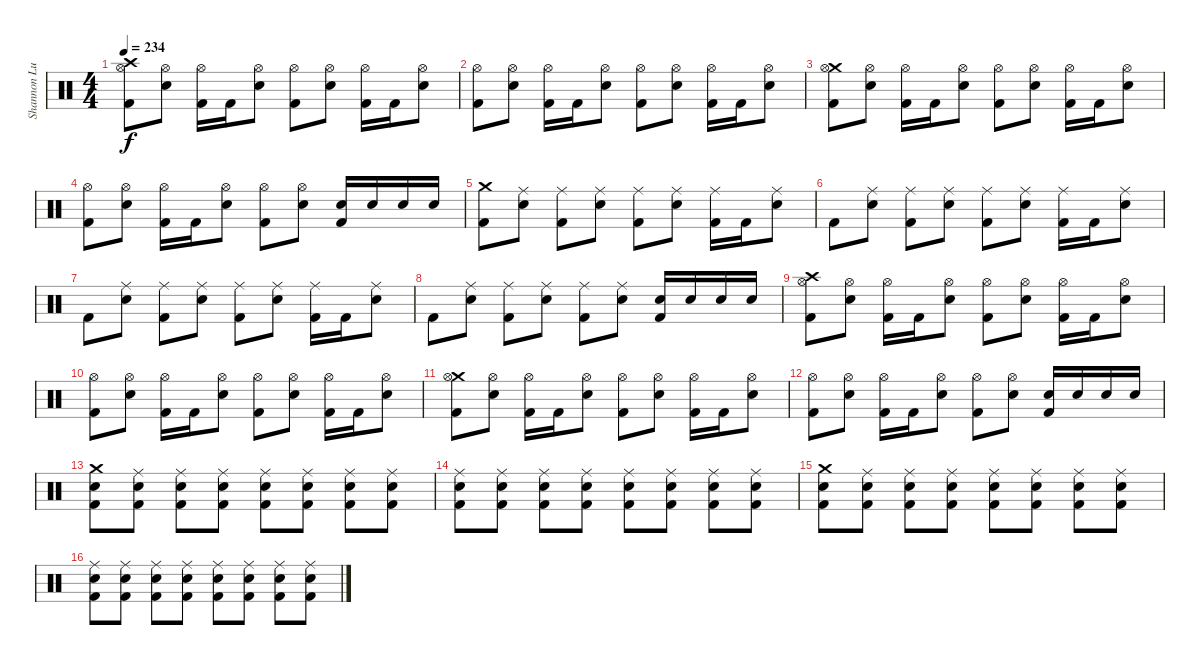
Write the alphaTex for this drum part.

\track ("Shannon Lucas (Drums)" "Shannon Lu") {instrument percussion}
\staff {score}
\articulation defaults
\ts (4 4)
\tempo 234
\clef neutral
\ks c
("Crash high (hit)" "Hi-Hat (open)" "Kick (hit) 2").8{dy f} ("Hi-Hat (open)" "Electric Snare (hit)").8 ("Hi-Hat (open)" "Kick (hit) 2").16 "Kick (hit) 2".16 ("Hi-Hat (open)" "Electric Snare (hit)").8 ("Hi-Hat (open)" "Kick (hit) 2").8 ("Hi-Hat (open)" "Electric Snare (hit)").8 ("Hi-Hat (open)" "Kick (hit) 2").16 "Kick (hit) 2".16 ("Hi-Hat (open)" "Electric Snare (hit)").8 |
("Hi-Hat (open)" "Kick (hit) 2").8 ("Hi-Hat (open)" "Electric Snare (hit)").8 ("Hi-Hat (open)" "Kick (hit) 2").16 "Kick (hit) 2".16 ("Hi-Hat (open)" "Electric Snare (hit)").8 ("Hi-Hat (open)" "Kick (hit) 2").8 ("Hi-Hat (open)" "Electric Snare (hit)").8 ("Hi-Hat (open)" "Kick (hit) 2").16 "Kick (hit) 2".16 ("Hi-Hat (open)" "Electric Snare (hit)").8 |
("Crash medium (hit)" "Hi-Hat (open)" "Kick (hit) 2").8 ("Hi-Hat (open)" "Electric Snare (hit)").8 ("Hi-Hat (open)" "Kick (hit) 2").16 "Kick (hit) 2".16 ("Hi-Hat (open)" "Electric Snare (hit)").8 ("Hi-Hat (open)" "Kick (hit) 2").8 ("Hi-Hat (open)" "Electric Snare (hit)").8 ("Hi-Hat (open)" "Kick (hit) 2").16 "Kick (hit) 2".16 ("Hi-Hat (open)" "Electric Snare (hit)").8 |
("Hi-Hat (open)" "Kick (hit) 2").8 ("Hi-Hat (open)" "Electric Snare (hit)").8 ("Hi-Hat (open)" "Kick (hit) 2").16 "Kick (hit) 2".16 ("Hi-Hat (open)" "Electric Snare (hit)").8 ("Hi-Hat (open)" "Kick (hit) 2").8 ("Hi-Hat (open)" "Electric Snare (hit)").8 ("Electric Snare (hit)" "Kick (hit) 2").16 "Electric Snare (hit)".16 "Electric Snare (hit)".16 "Electric Snare (hit)".16 |
("Crash medium (hit)" "Kick (hit) 2").8 ("Ride (middle)" "Electric Snare (hit)").8 ("Ride (middle)" "Kick (hit) 2").8 ("Ride (middle)" "Electric Snare (hit)").8 ("Ride (middle)" "Kick (hit) 2").8 ("Ride (middle)" "Electric Snare (hit)").8 ("Ride (middle)" "Kick (hit) 2").16 "Kick (hit) 2".16 ("Ride (middle)" "Electric Snare (hit)").8 |
"Kick (hit) 2".8 ("Ride (middle)" "Electric Snare (hit)").8 ("Ride (middle)" "Kick (hit) 2").8 ("Ride (middle)" "Electric Snare (hit)").8 ("Ride (middle)" "Kick (hit) 2").8 ("Ride (middle)" "Electric Snare (hit)").8 ("Ride (middle)" "Kick (hit) 2").16 "Kick (hit) 2".16 ("Ride (middle)" "Electric Snare (hit)").8 |
"Kick (hit) 2".8 ("Ride (middle)" "Electric Snare (hit)").8 ("Ride (middle)" "Kick (hit) 2").8 ("Ride (middle)" "Electric Snare (hit)").8 ("Ride (middle)" "Kick (hit) 2").8 ("Ride (middle)" "Electric Snare (hit)").8 ("Ride (middle)" "Kick (hit) 2").16 "Kick (hit) 2".16 ("Ride (middle)" "Electric Snare (hit)").8 |
"Kick (hit) 2".8 ("Ride (middle)" "Electric Snare (hit)").8 ("Ride (middle)" "Kick (hit) 2").8 ("Ride (middle)" "Electric Snare (hit)").8 ("Ride (middle)" "Kick (hit) 2").8 ("Ride (middle)" "Electric Snare (hit)").8 ("Electric Snare (hit)" "Kick (hit) 2").16 "Electric Snare (hit)".16 "Electric Snare (hit)".16 "Electric Snare (hit)".16 |
("Crash high (hit)" "Hi-Hat (open)" "Kick (hit) 2").8 ("Hi-Hat (open)" "Electric Snare (hit)").8 ("Hi-Hat (open)" "Kick (hit) 2").16 "Kick (hit) 2".16 ("Hi-Hat (open)" "Electric Snare (hit)").8 ("Hi-Hat (open)" "Kick (hit) 2").8 ("Hi-Hat (open)" "Electric Snare (hit)").8 ("Hi-Hat (open)" "Kick (hit) 2").16 "Kick (hit) 2".16 ("Hi-Hat (open)" "Electric Snare (hit)").8 |
("Hi-Hat (open)" "Kick (hit) 2").8 ("Hi-Hat (open)" "Electric Snare (hit)").8 ("Hi-Hat (open)" "Kick (hit) 2").16 "Kick (hit) 2".16 ("Hi-Hat (open)" "Electric Snare (hit)").8 ("Hi-Hat (open)" "Kick (hit) 2").8 ("Hi-Hat (open)" "Electric Snare (hit)").8 ("Hi-Hat (open)" "Kick (hit) 2").16 "Kick (hit) 2".16 ("Hi-Hat (open)" "Electric Snare (hit)").8 |
("Crash medium (hit)" "Hi-Hat (open)" "Kick (hit) 2").8 ("Hi-Hat (open)" "Electric Snare (hit)").8 ("Hi-Hat (open)" "Kick (hit) 2").16 "Kick (hit) 2".16 ("Hi-Hat (open)" "Electric Snare (hit)").8 ("Hi-Hat (open)" "Kick (hit) 2").8 ("Hi-Hat (open)" "Electric Snare (hit)").8 ("Hi-Hat (open)" "Kick (hit) 2").16 "Kick (hit) 2".16 ("Hi-Hat (open)" "Electric Snare (hit)").8 |
("Hi-Hat (open)" "Kick (hit) 2").8 ("Hi-Hat (open)" "Electric Snare (hit)").8 ("Hi-Hat (open)" "Kick (hit) 2").16 "Kick (hit) 2".16 ("Hi-Hat (open)" "Electric Snare (hit)").8 ("Hi-Hat (open)" "Kick (hit) 2").8 ("Hi-Hat (open)" "Electric Snare (hit)").8 ("Electric Snare (hit)" "Kick (hit) 2").16 "Electric Snare (hit)".16 "Electric Snare (hit)".16 "Electric Snare (hit)".16 |
("Crash medium (hit)" "Electric Snare (hit)" "Kick (hit) 2").8 ("Ride (middle)" "Electric Snare (hit)" "Kick (hit) 2").8 ("Ride (middle)" "Electric Snare (hit)" "Kick (hit) 2").8 ("Ride (middle)" "Electric Snare (hit)" "Kick (hit) 2").8 ("Ride (middle)" "Electric Snare (hit)" "Kick (hit) 2").8 ("Ride (middle)" "Electric Snare (hit)" "Kick (hit) 2").8 ("Ride (middle)" "Electric Snare (hit)" "Kick (hit) 2").8 ("Ride (middle)" "Electric Snare (hit)" "Kick (hit) 2").8 |
("Ride (middle)" "Electric Snare (hit)" "Kick (hit) 2").8 ("Ride (middle)" "Electric Snare (hit)" "Kick (hit) 2").8 ("Ride (middle)" "Electric Snare (hit)" "Kick (hit) 2").8 ("Ride (middle)" "Electric Snare (hit)" "Kick (hit) 2").8 ("Ride (middle)" "Electric Snare (hit)" "Kick (hit) 2").8 ("Ride (middle)" "Electric Snare (hit)" "Kick (hit) 2").8 ("Ride (middle)" "Electric Snare (hit)" "Kick (hit) 2").8 ("Ride (middle)" "Electric Snare (hit)" "Kick (hit) 2").8 |
("Crash medium (hit)" "Electric Snare (hit)" "Kick (hit) 2").8 ("Ride (middle)" "Electric Snare (hit)" "Kick (hit) 2").8 ("Ride (middle)" "Electric Snare (hit)" "Kick (hit) 2").8 ("Ride (middle)" "Electric Snare (hit)" "Kick (hit) 2").8 ("Ride (middle)" "Electric Snare (hit)" "Kick (hit) 2").8 ("Ride (middle)" "Electric Snare (hit)" "Kick (hit) 2").8 ("Ride (middle)" "Electric Snare (hit)" "Kick (hit) 2").8 ("Ride (middle)" "Electric Snare (hit)" "Kick (hit) 2").8 |
("Ride (middle)" "Electric Snare (hit)" "Kick (hit) 2").8 ("Ride (middle)" "Electric Snare (hit)" "Kick (hit) 2").8 ("Ride (middle)" "Electric Snare (hit)" "Kick (hit) 2").8 ("Ride (middle)" "Electric Snare (hit)" "Kick (hit) 2").8 ("Ride (middle)" "Electric Snare (hit)" "Kick (hit) 2").8 ("Ride (middle)" "Electric Snare (hit)" "Kick (hit) 2").8 ("Ride (middle)" "Electric Snare (hit)" "Kick (hit) 2").8 ("Ride (middle)" "Electric Snare (hit)" "Kick (hit) 2").8
